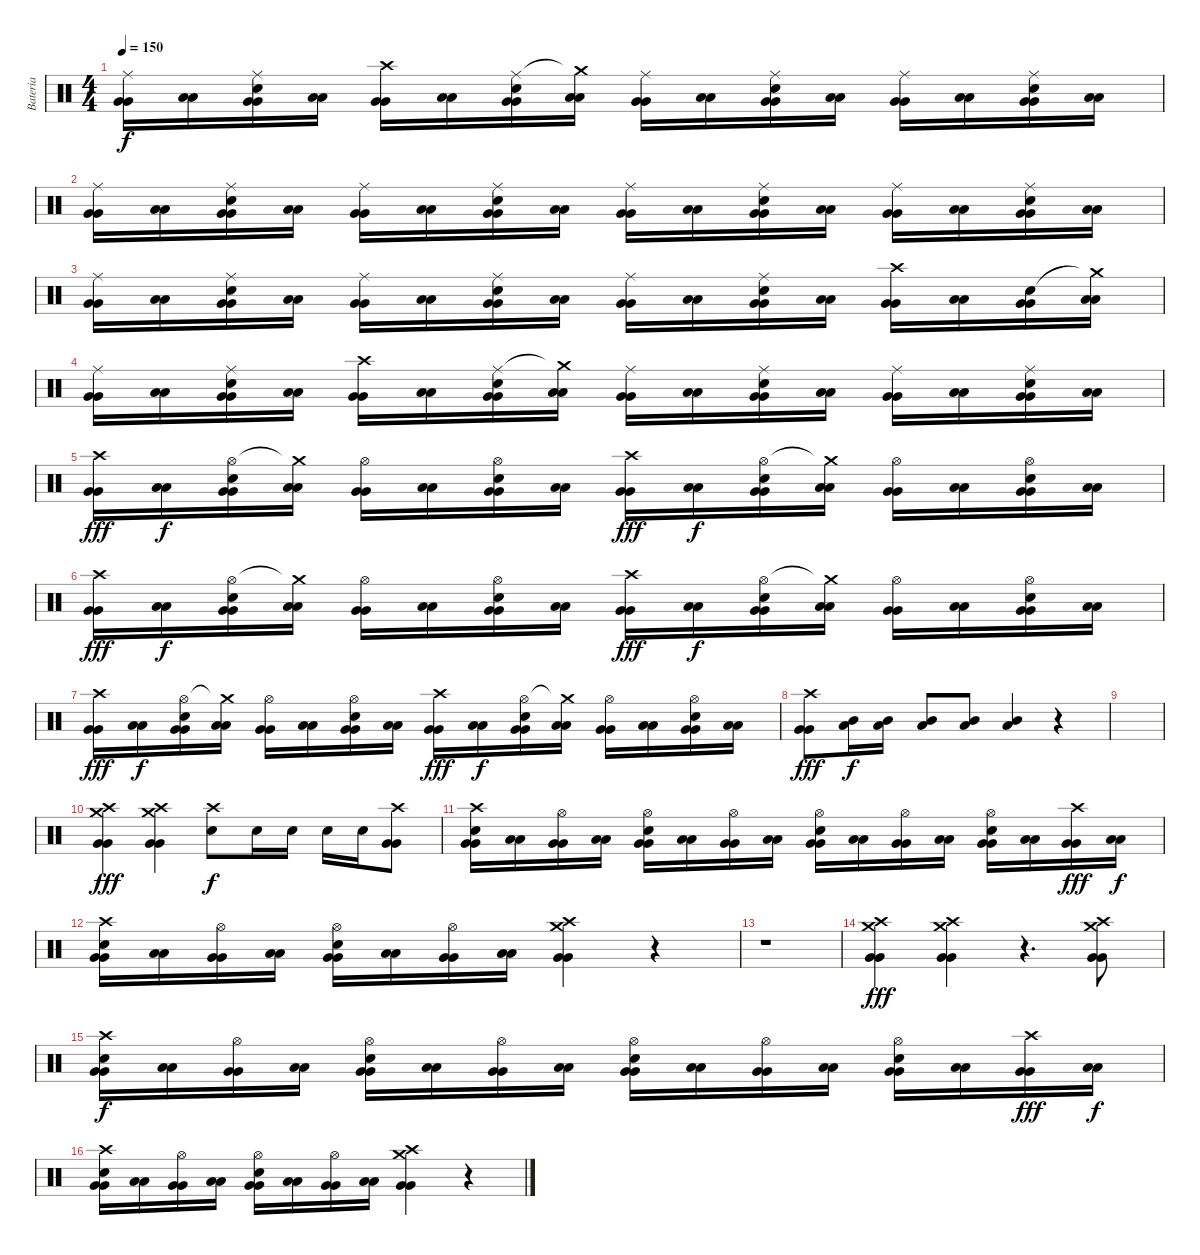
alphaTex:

\track ("Bateria" "Bateria") {instrument percussion}
\staff {score}
\articulation defaults
\ts (4 4)
\tempo 150
\clef neutral
\ks c
("Ride (middle)" "Very Low Tom (hit)" "Very Low Tom (hit)").16{dy f} ("Low Floor Tom (hit)" "Low Floor Tom (hit)").16 ("Ride (middle)" "Electric Snare (hit)" "Very Low Tom (hit)" "Very Low Tom (hit)").16 ("Low Floor Tom (hit)" "Low Floor Tom (hit)").16 ("Crash high (hit)" "Very Low Tom (hit)" "Very Low Tom (hit)").16 ("Low Floor Tom (hit)" "Low Floor Tom (hit)").16 ("Ride (middle)" "Electric Snare (hit)" "Very Low Tom (hit)" "Very Low Tom (hit)").16 ("Crash medium (hit)"{t} "Low Floor Tom (hit)" "Low Floor Tom (hit)").16 ("Ride (middle)" "Very Low Tom (hit)" "Very Low Tom (hit)").16 ("Low Floor Tom (hit)" "Low Floor Tom (hit)").16 ("Ride (middle)" "Electric Snare (hit)" "Very Low Tom (hit)" "Very Low Tom (hit)").16 ("Low Floor Tom (hit)" "Low Floor Tom (hit)").16 ("Ride (middle)" "Very Low Tom (hit)" "Very Low Tom (hit)").16 ("Low Floor Tom (hit)" "Low Floor Tom (hit)").16 ("Ride (middle)" "Electric Snare (hit)" "Very Low Tom (hit)" "Very Low Tom (hit)").16 ("Low Floor Tom (hit)" "Low Floor Tom (hit)").16 |
("Ride (middle)" "Very Low Tom (hit)" "Very Low Tom (hit)").16 ("Low Floor Tom (hit)" "Low Floor Tom (hit)").16 ("Ride (middle)" "Electric Snare (hit)" "Very Low Tom (hit)" "Very Low Tom (hit)").16 ("Low Floor Tom (hit)" "Low Floor Tom (hit)").16 ("Ride (middle)" "Very Low Tom (hit)" "Very Low Tom (hit)").16 ("Low Floor Tom (hit)" "Low Floor Tom (hit)").16 ("Ride (middle)" "Electric Snare (hit)" "Very Low Tom (hit)" "Very Low Tom (hit)").16 ("Low Floor Tom (hit)" "Low Floor Tom (hit)").16 ("Ride (middle)" "Very Low Tom (hit)" "Very Low Tom (hit)").16 ("Low Floor Tom (hit)" "Low Floor Tom (hit)").16 ("Ride (middle)" "Electric Snare (hit)" "Very Low Tom (hit)" "Very Low Tom (hit)").16 ("Low Floor Tom (hit)" "Low Floor Tom (hit)").16 ("Ride (middle)" "Very Low Tom (hit)" "Very Low Tom (hit)").16 ("Low Floor Tom (hit)" "Low Floor Tom (hit)").16 ("Ride (middle)" "Electric Snare (hit)" "Very Low Tom (hit)" "Very Low Tom (hit)").16 ("Low Floor Tom (hit)" "Low Floor Tom (hit)").16 |
("Ride (middle)" "Very Low Tom (hit)" "Very Low Tom (hit)").16 ("Low Floor Tom (hit)" "Low Floor Tom (hit)").16 ("Ride (middle)" "Electric Snare (hit)" "Very Low Tom (hit)" "Very Low Tom (hit)").16 ("Low Floor Tom (hit)" "Low Floor Tom (hit)").16 ("Ride (middle)" "Very Low Tom (hit)" "Very Low Tom (hit)").16 ("Low Floor Tom (hit)" "Low Floor Tom (hit)").16 ("Ride (middle)" "Electric Snare (hit)" "Very Low Tom (hit)" "Very Low Tom (hit)").16 ("Low Floor Tom (hit)" "Low Floor Tom (hit)").16 ("Ride (middle)" "Very Low Tom (hit)" "Very Low Tom (hit)").16 ("Low Floor Tom (hit)" "Low Floor Tom (hit)").16 ("Ride (middle)" "Electric Snare (hit)" "Very Low Tom (hit)" "Very Low Tom (hit)").16 ("Low Floor Tom (hit)" "Low Floor Tom (hit)").16 ("Crash high (hit)" "Very Low Tom (hit)" "Very Low Tom (hit)").16 ("Low Floor Tom (hit)" "Low Floor Tom (hit)").16 ("Electric Snare (hit)" "Very Low Tom (hit)" "Very Low Tom (hit)").16 ("Crash medium (hit)"{t} "Low Floor Tom (hit)" "Low Floor Tom (hit)").16 |
("Ride (middle)" "Very Low Tom (hit)" "Very Low Tom (hit)").16 ("Low Floor Tom (hit)" "Low Floor Tom (hit)").16 ("Ride (middle)" "Electric Snare (hit)" "Very Low Tom (hit)" "Very Low Tom (hit)").16 ("Low Floor Tom (hit)" "Low Floor Tom (hit)").16 ("Crash high (hit)" "Very Low Tom (hit)" "Very Low Tom (hit)").16 ("Low Floor Tom (hit)" "Low Floor Tom (hit)").16 ("Ride (middle)" "Electric Snare (hit)" "Very Low Tom (hit)" "Very Low Tom (hit)").16 ("Crash medium (hit)"{t} "Low Floor Tom (hit)" "Low Floor Tom (hit)").16 ("Ride (middle)" "Very Low Tom (hit)" "Very Low Tom (hit)").16 ("Low Floor Tom (hit)" "Low Floor Tom (hit)").16 ("Ride (middle)" "Electric Snare (hit)" "Very Low Tom (hit)" "Very Low Tom (hit)").16 ("Low Floor Tom (hit)" "Low Floor Tom (hit)").16 ("Ride (middle)" "Very Low Tom (hit)" "Very Low Tom (hit)").16 ("Low Floor Tom (hit)" "Low Floor Tom (hit)").16 ("Ride (middle)" "Electric Snare (hit)" "Very Low Tom (hit)" "Very Low Tom (hit)").16 ("Low Floor Tom (hit)" "Low Floor Tom (hit)").16 |
("Crash high (hit)" "Very Low Tom (hit)" "Very Low Tom (hit)").16{dy fff} ("Low Floor Tom (hit)" "Low Floor Tom (hit)").16{dy f} ("Hi-Hat (open)" "Electric Snare (hit)" "Very Low Tom (hit)" "Very Low Tom (hit)").16 ("Crash medium (hit)"{t} "Low Floor Tom (hit)" "Low Floor Tom (hit)").16 ("Hi-Hat (open)" "Very Low Tom (hit)" "Very Low Tom (hit)").16 ("Low Floor Tom (hit)" "Low Floor Tom (hit)").16 ("Hi-Hat (open)" "Electric Snare (hit)" "Very Low Tom (hit)" "Very Low Tom (hit)").16 ("Low Floor Tom (hit)" "Low Floor Tom (hit)").16 ("Crash high (hit)" "Very Low Tom (hit)" "Very Low Tom (hit)").16{dy fff} ("Low Floor Tom (hit)" "Low Floor Tom (hit)").16{dy f} ("Hi-Hat (open)" "Electric Snare (hit)" "Very Low Tom (hit)" "Very Low Tom (hit)").16 ("Crash medium (hit)"{t} "Low Floor Tom (hit)" "Low Floor Tom (hit)").16 ("Hi-Hat (open)" "Very Low Tom (hit)" "Very Low Tom (hit)").16 ("Low Floor Tom (hit)" "Low Floor Tom (hit)").16 ("Hi-Hat (open)" "Electric Snare (hit)" "Very Low Tom (hit)" "Very Low Tom (hit)").16 ("Low Floor Tom (hit)" "Low Floor Tom (hit)").16 |
("Crash high (hit)" "Very Low Tom (hit)" "Very Low Tom (hit)").16{dy fff} ("Low Floor Tom (hit)" "Low Floor Tom (hit)").16{dy f} ("Hi-Hat (open)" "Electric Snare (hit)" "Very Low Tom (hit)" "Very Low Tom (hit)").16 ("Crash medium (hit)"{t} "Low Floor Tom (hit)" "Low Floor Tom (hit)").16 ("Hi-Hat (open)" "Very Low Tom (hit)" "Very Low Tom (hit)").16 ("Low Floor Tom (hit)" "Low Floor Tom (hit)").16 ("Hi-Hat (open)" "Electric Snare (hit)" "Very Low Tom (hit)" "Very Low Tom (hit)").16 ("Low Floor Tom (hit)" "Low Floor Tom (hit)").16 ("Crash high (hit)" "Very Low Tom (hit)" "Very Low Tom (hit)").16{dy fff} ("Low Floor Tom (hit)" "Low Floor Tom (hit)").16{dy f} ("Hi-Hat (open)" "Electric Snare (hit)" "Very Low Tom (hit)" "Very Low Tom (hit)").16 ("Crash medium (hit)"{t} "Low Floor Tom (hit)" "Low Floor Tom (hit)").16 ("Hi-Hat (open)" "Very Low Tom (hit)" "Very Low Tom (hit)").16 ("Low Floor Tom (hit)" "Low Floor Tom (hit)").16 ("Hi-Hat (open)" "Electric Snare (hit)" "Very Low Tom (hit)" "Very Low Tom (hit)").16 ("Low Floor Tom (hit)" "Low Floor Tom (hit)").16 |
("Crash high (hit)" "Very Low Tom (hit)" "Very Low Tom (hit)").16{dy fff} ("Low Floor Tom (hit)" "Low Floor Tom (hit)").16{dy f} ("Hi-Hat (open)" "Electric Snare (hit)" "Very Low Tom (hit)" "Very Low Tom (hit)").16 ("Crash medium (hit)"{t} "Low Floor Tom (hit)" "Low Floor Tom (hit)").16 ("Hi-Hat (open)" "Very Low Tom (hit)" "Very Low Tom (hit)").16 ("Low Floor Tom (hit)" "Low Floor Tom (hit)").16 ("Hi-Hat (open)" "Electric Snare (hit)" "Very Low Tom (hit)" "Very Low Tom (hit)").16 ("Low Floor Tom (hit)" "Low Floor Tom (hit)").16 ("Crash high (hit)" "Very Low Tom (hit)" "Very Low Tom (hit)").16{dy fff} ("Low Floor Tom (hit)" "Low Floor Tom (hit)").16{dy f} ("Hi-Hat (open)" "Electric Snare (hit)" "Very Low Tom (hit)" "Very Low Tom (hit)").16 ("Crash medium (hit)"{t} "Low Floor Tom (hit)" "Low Floor Tom (hit)").16 ("Hi-Hat (open)" "Very Low Tom (hit)" "Very Low Tom (hit)").16 ("Low Floor Tom (hit)" "Low Floor Tom (hit)").16 ("Hi-Hat (open)" "Electric Snare (hit)" "Very Low Tom (hit)" "Very Low Tom (hit)").16 ("Low Floor Tom (hit)" "Low Floor Tom (hit)").16 |
("Crash high (hit)" "Very Low Tom (hit)" "Very Low Tom (hit)").8{dy fff} ("Low Tom (hit)" "Mid Tom (hit)").16{dy f} ("Low Tom (hit)" "Mid Tom (hit)").16 ("Low Tom (hit)" "Mid Tom (hit)").8 ("Low Tom (hit)" "Mid Tom (hit)").8 ("Low Tom (hit)" "Mid Tom (hit)").4 r.4 |
|
("Crash high (hit)" "Crash medium (hit)" "Very Low Tom (hit)" "Very Low Tom (hit)").4{dy fff} ("Crash high (hit)" "Crash medium (hit)" "Very Low Tom (hit)" "Very Low Tom (hit)").4 ("Crash high (hit)" "Electric Snare (hit)").8{dy f} "Electric Snare (hit)".16 "Electric Snare (hit)".16 "Electric Snare (hit)".16 "Electric Snare (hit)".16 ("Crash high (hit)" "Very Low Tom (hit)" "Very Low Tom (hit)").8 |
("Crash high (hit)" "Electric Snare (hit)" "Very Low Tom (hit)" "Very Low Tom (hit)").16 ("Low Floor Tom (hit)" "Low Floor Tom (hit)").16 ("Hi-Hat (open)" "Very Low Tom (hit)" "Very Low Tom (hit)").16 ("Low Floor Tom (hit)" "Low Floor Tom (hit)").16 ("Hi-Hat (open)" "Electric Snare (hit)" "Very Low Tom (hit)" "Very Low Tom (hit)").16 ("Low Floor Tom (hit)" "Low Floor Tom (hit)").16 ("Hi-Hat (open)" "Very Low Tom (hit)" "Very Low Tom (hit)").16 ("Low Floor Tom (hit)" "Low Floor Tom (hit)").16 ("Hi-Hat (open)" "Electric Snare (hit)" "Very Low Tom (hit)" "Very Low Tom (hit)").16 ("Low Floor Tom (hit)" "Low Floor Tom (hit)").16 ("Hi-Hat (open)" "Very Low Tom (hit)" "Very Low Tom (hit)").16 ("Low Floor Tom (hit)" "Low Floor Tom (hit)").16 ("Hi-Hat (open)" "Electric Snare (hit)" "Very Low Tom (hit)" "Very Low Tom (hit)").16 ("Low Floor Tom (hit)" "Low Floor Tom (hit)").16 ("Crash high (hit)" "Very Low Tom (hit)" "Very Low Tom (hit)").16{dy fff} ("Low Floor Tom (hit)" "Low Floor Tom (hit)").16{dy f} |
("Crash high (hit)" "Electric Snare (hit)" "Very Low Tom (hit)" "Very Low Tom (hit)").16 ("Low Floor Tom (hit)" "Low Floor Tom (hit)").16 ("Hi-Hat (open)" "Very Low Tom (hit)" "Very Low Tom (hit)").16 ("Low Floor Tom (hit)" "Low Floor Tom (hit)").16 ("Hi-Hat (open)" "Electric Snare (hit)" "Very Low Tom (hit)" "Very Low Tom (hit)").16 ("Low Floor Tom (hit)" "Low Floor Tom (hit)").16 ("Hi-Hat (open)" "Very Low Tom (hit)" "Very Low Tom (hit)").16 ("Low Floor Tom (hit)" "Low Floor Tom (hit)").16 ("Crash high (hit)" "Crash medium (hit)" "Very Low Tom (hit)" "Very Low Tom (hit)").4 r.4 |
r.1 |
("Crash high (hit)" "Crash medium (hit)" "Very Low Tom (hit)" "Very Low Tom (hit)").4{dy fff} ("Crash high (hit)" "Crash medium (hit)" "Very Low Tom (hit)" "Very Low Tom (hit)").4 r.4{d} ("Crash high (hit)" "Crash medium (hit)" "Very Low Tom (hit)" "Very Low Tom (hit)").8 |
("Crash high (hit)" "Electric Snare (hit)" "Very Low Tom (hit)" "Very Low Tom (hit)").16{dy f} ("Low Floor Tom (hit)" "Low Floor Tom (hit)").16 ("Hi-Hat (open)" "Very Low Tom (hit)" "Very Low Tom (hit)").16 ("Low Floor Tom (hit)" "Low Floor Tom (hit)").16 ("Hi-Hat (open)" "Electric Snare (hit)" "Very Low Tom (hit)" "Very Low Tom (hit)").16 ("Low Floor Tom (hit)" "Low Floor Tom (hit)").16 ("Hi-Hat (open)" "Very Low Tom (hit)" "Very Low Tom (hit)").16 ("Low Floor Tom (hit)" "Low Floor Tom (hit)").16 ("Hi-Hat (open)" "Electric Snare (hit)" "Very Low Tom (hit)" "Very Low Tom (hit)").16 ("Low Floor Tom (hit)" "Low Floor Tom (hit)").16 ("Hi-Hat (open)" "Very Low Tom (hit)" "Very Low Tom (hit)").16 ("Low Floor Tom (hit)" "Low Floor Tom (hit)").16 ("Hi-Hat (open)" "Electric Snare (hit)" "Very Low Tom (hit)" "Very Low Tom (hit)").16 ("Low Floor Tom (hit)" "Low Floor Tom (hit)").16 ("Crash high (hit)" "Very Low Tom (hit)" "Very Low Tom (hit)").16{dy fff} ("Low Floor Tom (hit)" "Low Floor Tom (hit)").16{dy f} |
("Crash high (hit)" "Electric Snare (hit)" "Very Low Tom (hit)" "Very Low Tom (hit)").16 ("Low Floor Tom (hit)" "Low Floor Tom (hit)").16 ("Hi-Hat (open)" "Very Low Tom (hit)" "Very Low Tom (hit)").16 ("Low Floor Tom (hit)" "Low Floor Tom (hit)").16 ("Hi-Hat (open)" "Electric Snare (hit)" "Very Low Tom (hit)" "Very Low Tom (hit)").16 ("Low Floor Tom (hit)" "Low Floor Tom (hit)").16 ("Hi-Hat (open)" "Very Low Tom (hit)" "Very Low Tom (hit)").16 ("Low Floor Tom (hit)" "Low Floor Tom (hit)").16 ("Crash high (hit)" "Crash medium (hit)" "Very Low Tom (hit)" "Very Low Tom (hit)").4 r.4
